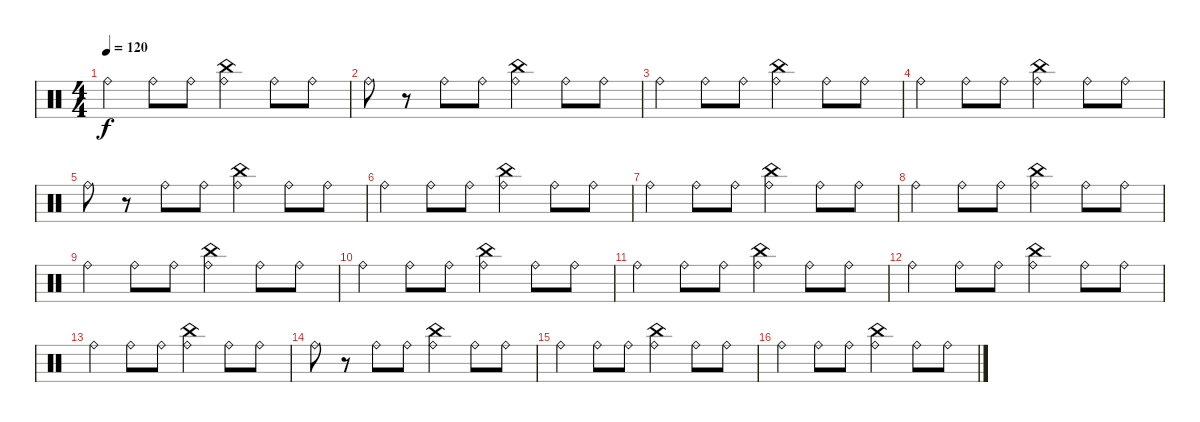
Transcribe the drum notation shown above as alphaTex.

\track "" {instrument percussion}
\staff {score}
\articulation defaults
\ts (4 4)
\tempo 120
\clef neutral
\ks c "Ride (bell)".4{dy f} "Ride (bell)".8 "Ride (bell)".8
("Ride (bell)" "China (hit)").4 "Ride (bell)".8 "Ride (bell)".8 |
"Ride (bell)".8 r.8 "Ride (bell)".8 "Ride (bell)".8 ("Ride (bell)" "China (hit)").4 "Ride (bell)".8 "Ride (bell)".8 |
"Ride (bell)".4 "Ride (bell)".8 "Ride (bell)".8 ("Ride (bell)" "China (hit)").4 "Ride (bell)".8 "Ride (bell)".8 |
"Ride (bell)".4 "Ride (bell)".8 "Ride (bell)".8 ("Ride (bell)" "China (hit)").4 "Ride (bell)".8 "Ride (bell)".8 |
"Ride (bell)".8 r.8 "Ride (bell)".8 "Ride (bell)".8 ("Ride (bell)" "China (hit)").4 "Ride (bell)".8 "Ride (bell)".8 |
"Ride (bell)".4 "Ride (bell)".8 "Ride (bell)".8 ("Ride (bell)" "China (hit)").4 "Ride (bell)".8 "Ride (bell)".8 |
"Ride (bell)".4 "Ride (bell)".8 "Ride (bell)".8 ("Ride (bell)" "China (hit)").4 "Ride (bell)".8 "Ride (bell)".8 |
"Ride (bell)".4 "Ride (bell)".8 "Ride (bell)".8 ("Ride (bell)" "China (hit)").4 "Ride (bell)".8 "Ride (bell)".8 |
"Ride (bell)".4 "Ride (bell)".8 "Ride (bell)".8 ("Ride (bell)" "China (hit)").4 "Ride (bell)".8 "Ride (bell)".8 |
"Ride (bell)".4 "Ride (bell)".8 "Ride (bell)".8 ("Ride (bell)" "China (hit)").4 "Ride (bell)".8 "Ride (bell)".8 |
"Ride (bell)".4 "Ride (bell)".8 "Ride (bell)".8 ("Ride (bell)" "China (hit)").4 "Ride (bell)".8 "Ride (bell)".8 |
"Ride (bell)".4 "Ride (bell)".8 "Ride (bell)".8 ("Ride (bell)" "China (hit)").4 "Ride (bell)".8 "Ride (bell)".8 |
"Ride (bell)".4 "Ride (bell)".8 "Ride (bell)".8 ("Ride (bell)" "China (hit)").4 "Ride (bell)".8 "Ride (bell)".8 |
"Ride (bell)".8 r.8 "Ride (bell)".8 "Ride (bell)".8 ("Ride (bell)" "China (hit)").4 "Ride (bell)".8 "Ride (bell)".8 |
"Ride (bell)".4 "Ride (bell)".8 "Ride (bell)".8 ("Ride (bell)" "China (hit)").4 "Ride (bell)".8 "Ride (bell)".8 |
"Ride (bell)".4 "Ride (bell)".8 "Ride (bell)".8 ("Ride (bell)" "China (hit)").4 "Ride (bell)".8 "Ride (bell)".8
